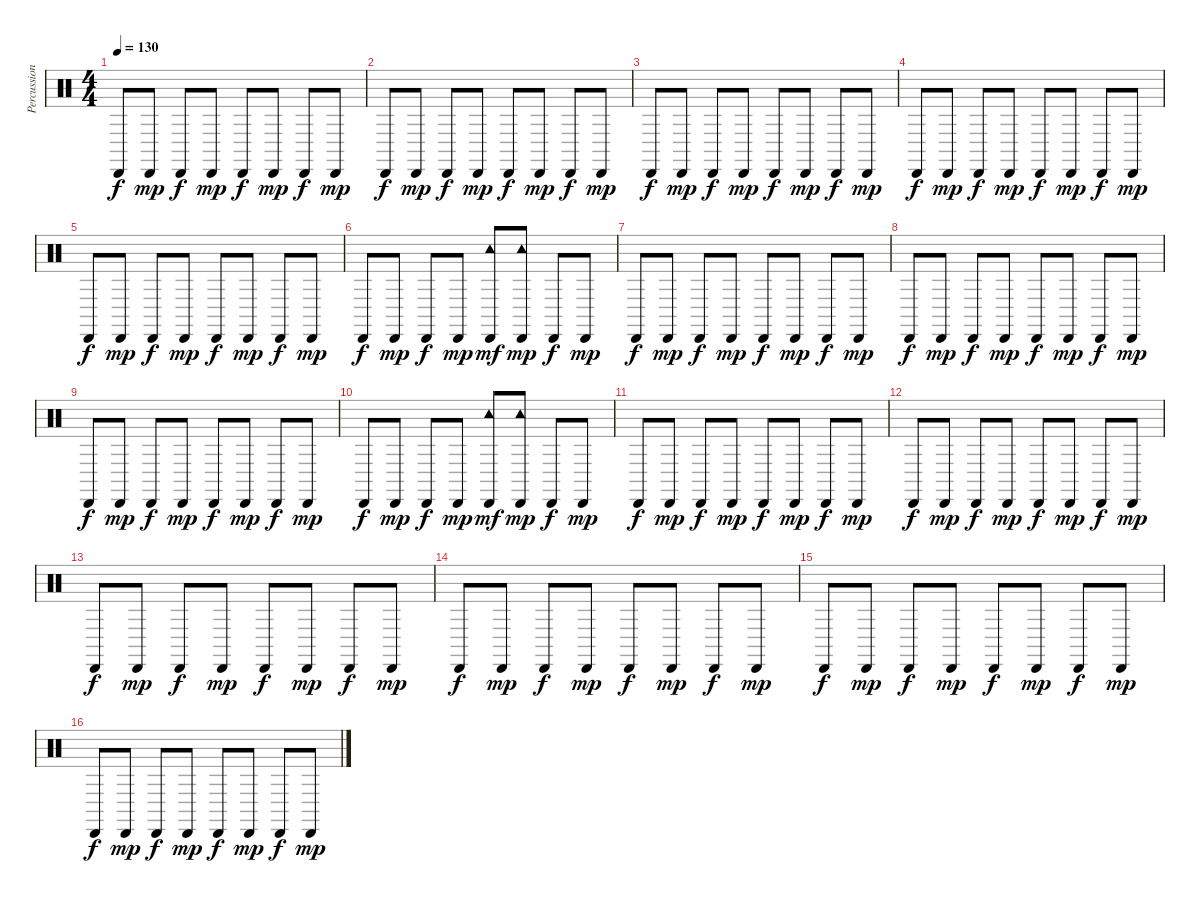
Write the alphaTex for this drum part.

\track ("Percussion" "Percussion") {instrument percussion}
\staff {score}
\articulation defaults
\ts (4 4)
\tempo 130
\clef neutral
\ks c "Cabasa (hit)".8{dy f} "Cabasa (hit)".8{dy mp} "Cabasa (hit)".8{dy f} "Cabasa (hit)".8{dy mp} "Cabasa (hit)".8{dy f} "Cabasa (hit)".8{dy mp} "Cabasa (hit)".8{dy f} "Cabasa (hit)".8{dy mp}
|
"Cabasa (hit)".8{dy f} "Cabasa (hit)".8{dy mp} "Cabasa (hit)".8{dy f} "Cabasa (hit)".8{dy mp} "Cabasa (hit)".8{dy f} "Cabasa (hit)".8{dy mp} "Cabasa (hit)".8{dy f} "Cabasa (hit)".8{dy mp} |
"Cabasa (hit)".8{dy f} "Cabasa (hit)".8{dy mp} "Cabasa (hit)".8{dy f} "Cabasa (hit)".8{dy mp} "Cabasa (hit)".8{dy f} "Cabasa (hit)".8{dy mp} "Cabasa (hit)".8{dy f} "Cabasa (hit)".8{dy mp} |
"Cabasa (hit)".8{dy f} "Cabasa (hit)".8{dy mp} "Cabasa (hit)".8{dy f} "Cabasa (hit)".8{dy mp} "Cabasa (hit)".8{dy f} "Cabasa (hit)".8{dy mp} "Cabasa (hit)".8{dy f} "Cabasa (hit)".8{dy mp} |
"Cabasa (hit)".8{dy f} "Cabasa (hit)".8{dy mp} "Cabasa (hit)".8{dy f} "Cabasa (hit)".8{dy mp} "Cabasa (hit)".8{dy f} "Cabasa (hit)".8{dy mp} "Cabasa (hit)".8{dy f} "Cabasa (hit)".8{dy mp} |
"Cabasa (hit)".8{dy f} "Cabasa (hit)".8{dy mp} "Cabasa (hit)".8{dy f} "Cabasa (hit)".8{dy mp} ("Tambourine (hit)" "Cabasa (hit)").8{dy mf} ("Tambourine (hit)" "Cabasa (hit)").8{dy mp} "Cabasa (hit)".8{dy f} "Cabasa (hit)".8{dy mp} |
"Cabasa (hit)".8{dy f} "Cabasa (hit)".8{dy mp} "Cabasa (hit)".8{dy f} "Cabasa (hit)".8{dy mp} "Cabasa (hit)".8{dy f} "Cabasa (hit)".8{dy mp} "Cabasa (hit)".8{dy f} "Cabasa (hit)".8{dy mp} |
"Cabasa (hit)".8{dy f} "Cabasa (hit)".8{dy mp} "Cabasa (hit)".8{dy f} "Cabasa (hit)".8{dy mp} "Cabasa (hit)".8{dy f} "Cabasa (hit)".8{dy mp} "Cabasa (hit)".8{dy f} "Cabasa (hit)".8{dy mp} |
"Cabasa (hit)".8{dy f} "Cabasa (hit)".8{dy mp} "Cabasa (hit)".8{dy f} "Cabasa (hit)".8{dy mp} "Cabasa (hit)".8{dy f} "Cabasa (hit)".8{dy mp} "Cabasa (hit)".8{dy f} "Cabasa (hit)".8{dy mp} |
"Cabasa (hit)".8{dy f} "Cabasa (hit)".8{dy mp} "Cabasa (hit)".8{dy f} "Cabasa (hit)".8{dy mp} ("Tambourine (hit)" "Cabasa (hit)").8{dy mf} ("Tambourine (hit)" "Cabasa (hit)").8{dy mp} "Cabasa (hit)".8{dy f} "Cabasa (hit)".8{dy mp} |
"Cabasa (hit)".8{dy f} "Cabasa (hit)".8{dy mp} "Cabasa (hit)".8{dy f} "Cabasa (hit)".8{dy mp} "Cabasa (hit)".8{dy f} "Cabasa (hit)".8{dy mp} "Cabasa (hit)".8{dy f} "Cabasa (hit)".8{dy mp} |
"Cabasa (hit)".8{dy f} "Cabasa (hit)".8{dy mp} "Cabasa (hit)".8{dy f} "Cabasa (hit)".8{dy mp} "Cabasa (hit)".8{dy f} "Cabasa (hit)".8{dy mp} "Cabasa (hit)".8{dy f} "Cabasa (hit)".8{dy mp} |
"Cabasa (hit)".8{dy f} "Cabasa (hit)".8{dy mp} "Cabasa (hit)".8{dy f} "Cabasa (hit)".8{dy mp} "Cabasa (hit)".8{dy f} "Cabasa (hit)".8{dy mp} "Cabasa (hit)".8{dy f} "Cabasa (hit)".8{dy mp} |
"Cabasa (hit)".8{dy f} "Cabasa (hit)".8{dy mp} "Cabasa (hit)".8{dy f} "Cabasa (hit)".8{dy mp} "Cabasa (hit)".8{dy f} "Cabasa (hit)".8{dy mp} "Cabasa (hit)".8{dy f} "Cabasa (hit)".8{dy mp} |
"Cabasa (hit)".8{dy f} "Cabasa (hit)".8{dy mp} "Cabasa (hit)".8{dy f} "Cabasa (hit)".8{dy mp} "Cabasa (hit)".8{dy f} "Cabasa (hit)".8{dy mp} "Cabasa (hit)".8{dy f} "Cabasa (hit)".8{dy mp} |
"Cabasa (hit)".8{dy f} "Cabasa (hit)".8{dy mp} "Cabasa (hit)".8{dy f} "Cabasa (hit)".8{dy mp} "Cabasa (hit)".8{dy f} "Cabasa (hit)".8{dy mp} "Cabasa (hit)".8{dy f} "Cabasa (hit)".8{dy mp}
